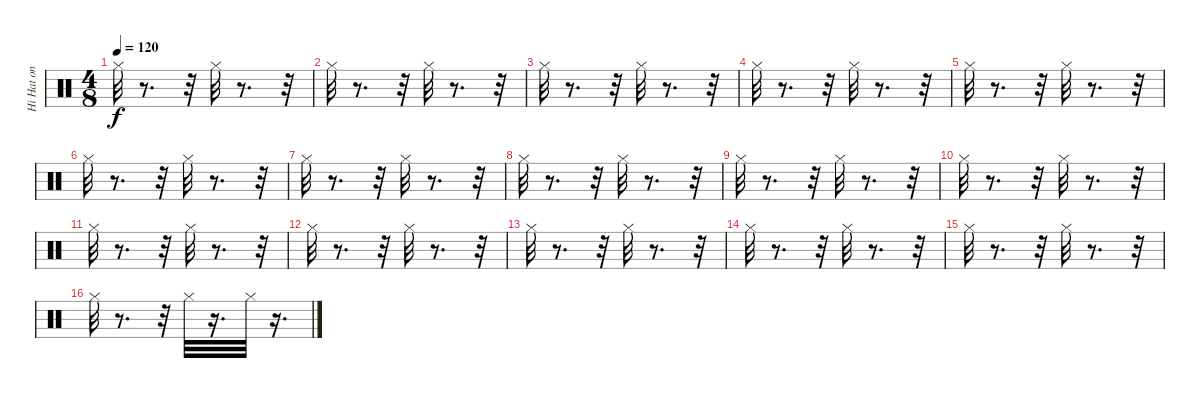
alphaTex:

\track ("Hi Hat on BD" "Hi Hat on ") {instrument percussion}
\staff {score}
\articulation defaults
\ts (4 8)
\tempo 120
\clef neutral
\ks c "Hi-Hat (closed)".32{dy f}
r.8{d} r.32 "Hi-Hat (closed)".32 r.8{d} r.32 |
"Hi-Hat (closed)".32 r.8{d} r.32 "Hi-Hat (closed)".32 r.8{d} r.32 |
"Hi-Hat (closed)".32 r.8{d} r.32 "Hi-Hat (closed)".32 r.8{d} r.32 |
"Hi-Hat (closed)".32 r.8{d} r.32 "Hi-Hat (closed)".32 r.8{d} r.32 |
"Hi-Hat (closed)".32 r.8{d} r.32 "Hi-Hat (closed)".32 r.8{d} r.32 |
"Hi-Hat (closed)".32 r.8{d} r.32 "Hi-Hat (closed)".32 r.8{d} r.32 |
"Hi-Hat (closed)".32 r.8{d} r.32 "Hi-Hat (closed)".32 r.8{d} r.32 |
"Hi-Hat (closed)".32 r.8{d} r.32 "Hi-Hat (closed)".32 r.8{d} r.32 |
"Hi-Hat (closed)".32 r.8{d} r.32 "Hi-Hat (closed)".32 r.8{d} r.32 |
"Hi-Hat (closed)".32 r.8{d} r.32 "Hi-Hat (closed)".32 r.8{d} r.32 |
"Hi-Hat (closed)".32 r.8{d} r.32 "Hi-Hat (closed)".32 r.8{d} r.32 |
"Hi-Hat (closed)".32 r.8{d} r.32 "Hi-Hat (closed)".32 r.8{d} r.32 |
"Hi-Hat (closed)".32 r.8{d} r.32 "Hi-Hat (closed)".32 r.8{d} r.32 |
"Hi-Hat (closed)".32 r.8{d} r.32 "Hi-Hat (closed)".32 r.8{d} r.32 |
"Hi-Hat (closed)".32 r.8{d} r.32 "Hi-Hat (closed)".32 r.8{d} r.32 |
"Hi-Hat (closed)".32 r.8{d} r.32 "Hi-Hat (closed)".32 r.16{d} "Hi-Hat (closed)".32 r.16{d}
